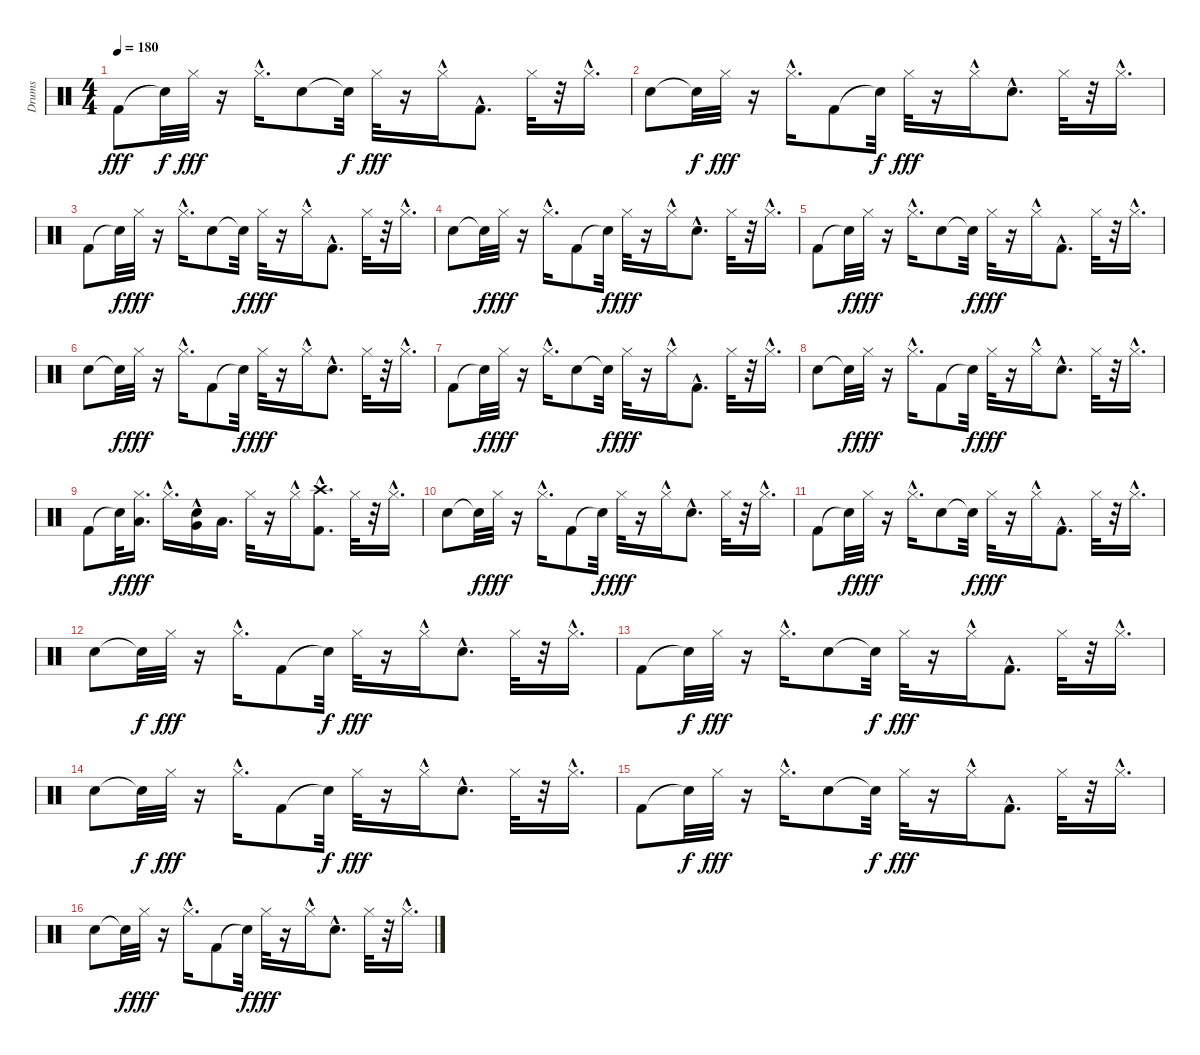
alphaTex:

\track ("Drums" "Drums") {instrument percussion}
\staff {score}
\articulation defaults
\ts (4 4)
\tempo 180
\clef neutral
\ks c "Kick (hit) 2".8{dy fff} "Snare (hit)"{t}.32{dy f} "Hi-Hat (closed)".32{dy fff}
r.16 "Hi-Hat (closed)"{hac}.16{d} "Snare (hit) 2".8 "Snare (hit)"{t}.32{dy f} "Hi-Hat (closed)".32{dy fff} r.16 "Hi-Hat (closed)"{hac}.16 "Kick (hit) 2"{hac}.8{d} "Hi-Hat (closed)".32 r.32 "Hi-Hat (closed)"{hac}.16{d} |
"Snare (hit) 2".8 "Snare (hit)"{t}.32{dy f} "Hi-Hat (closed)".32{dy fff} r.16 "Hi-Hat (closed)"{hac}.16{d} "Kick (hit) 2".8 "Snare (hit)"{t}.32{dy f} "Hi-Hat (closed)".32{dy fff} r.16 "Hi-Hat (closed)"{hac}.16 "Snare (hit) 2"{hac}.8{d} "Hi-Hat (closed)".32 r.32 "Hi-Hat (closed)"{hac}.16{d} |
"Kick (hit) 2".8 "Snare (hit)"{t}.32{dy f} "Hi-Hat (closed)".32{dy fff} r.16 "Hi-Hat (closed)"{hac}.16{d} "Snare (hit) 2".8 "Snare (hit)"{t}.32{dy f} "Hi-Hat (closed)".32{dy fff} r.16 "Hi-Hat (closed)"{hac}.16 "Kick (hit) 2"{hac}.8{d} "Hi-Hat (closed)".32 r.32 "Hi-Hat (closed)"{hac}.16{d} |
"Snare (hit) 2".8 "Snare (hit)"{t}.32{dy f} "Hi-Hat (closed)".32{dy fff} r.16 "Hi-Hat (closed)"{hac}.16{d} "Kick (hit) 2".8 "Snare (hit)"{t}.32{dy f} "Hi-Hat (closed)".32{dy fff} r.16 "Hi-Hat (closed)"{hac}.16 "Snare (hit) 2"{hac}.8{d} "Hi-Hat (closed)".32 r.32 "Hi-Hat (closed)"{hac}.16{d} |
"Kick (hit) 2".8 "Snare (hit)"{t}.32{dy f} "Hi-Hat (closed)".32{dy fff} r.16 "Hi-Hat (closed)"{hac}.16{d} "Snare (hit) 2".8 "Snare (hit)"{t}.32{dy f} "Hi-Hat (closed)".32{dy fff} r.16 "Hi-Hat (closed)"{hac}.16 "Kick (hit) 2"{hac}.8{d} "Hi-Hat (closed)".32 r.32 "Hi-Hat (closed)"{hac}.16{d} |
"Snare (hit) 2".8 "Snare (hit)"{t}.32{dy f} "Hi-Hat (closed)".32{dy fff} r.16 "Hi-Hat (closed)"{hac}.16{d} "Kick (hit) 2".8 "Snare (hit)"{t}.32{dy f} "Hi-Hat (closed)".32{dy fff} r.16 "Hi-Hat (closed)"{hac}.16 "Snare (hit) 2"{hac}.8{d} "Hi-Hat (closed)".32 r.32 "Hi-Hat (closed)"{hac}.16{d} |
"Kick (hit) 2".8 "Snare (hit)"{t}.32{dy f} "Hi-Hat (closed)".32{dy fff} r.16 "Hi-Hat (closed)"{hac}.16{d} "Snare (hit) 2".8 "Snare (hit)"{t}.32{dy f} "Hi-Hat (closed)".32{dy fff} r.16 "Hi-Hat (closed)"{hac}.16 "Kick (hit) 2"{hac}.8{d} "Hi-Hat (closed)".32 r.32 "Hi-Hat (closed)"{hac}.16{d} |
"Snare (hit) 2".8 "Snare (hit)"{t}.32{dy f} "Hi-Hat (closed)".32{dy fff} r.16 "Hi-Hat (closed)"{hac}.16{d} "Kick (hit) 2".8 "Snare (hit)"{t}.32{dy f} "Hi-Hat (closed)".32{dy fff} r.16 "Hi-Hat (closed)"{hac}.16 "Snare (hit) 2"{hac}.8{d} "Hi-Hat (closed)".32 r.32 "Hi-Hat (closed)"{hac}.16{d} |
"Kick (hit) 2".8 "Snare (hit)"{t}.32{dy f} ("Hi-Hat (closed)" "Low Tom (hit)").16{d dy fff} "Hi-Hat (closed)"{hac}.16{d} ("Snare (hit) 2"{hac} "Very Low Tom (hit)").16 "Low Floor Tom (hit)".16{d} "Hi-Hat (closed)".32 r.16 "Hi-Hat (closed)"{hac}.16 ("Kick (hit) 2"{hac} "Crash high (hit)").8{d} "Hi-Hat (closed)".32 r.32 "Hi-Hat (closed)"{hac}.16{d} |
"Snare (hit) 2".8 "Snare (hit)"{t}.32{dy f} "Hi-Hat (closed)".32{dy fff} r.16 "Hi-Hat (closed)"{hac}.16{d} "Kick (hit) 2".8 "Snare (hit)"{t}.32{dy f} "Hi-Hat (closed)".32{dy fff} r.16 "Hi-Hat (closed)"{hac}.16 "Snare (hit) 2"{hac}.8{d} "Hi-Hat (closed)".32 r.32 "Hi-Hat (closed)"{hac}.16{d} |
"Kick (hit) 2".8 "Snare (hit)"{t}.32{dy f} "Hi-Hat (closed)".32{dy fff} r.16 "Hi-Hat (closed)"{hac}.16{d} "Snare (hit) 2".8 "Snare (hit)"{t}.32{dy f} "Hi-Hat (closed)".32{dy fff} r.16 "Hi-Hat (closed)"{hac}.16 "Kick (hit) 2"{hac}.8{d} "Hi-Hat (closed)".32 r.32 "Hi-Hat (closed)"{hac}.16{d} |
"Snare (hit) 2".8 "Snare (hit)"{t}.32{dy f} "Hi-Hat (closed)".32{dy fff} r.16 "Hi-Hat (closed)"{hac}.16{d} "Kick (hit) 2".8 "Snare (hit)"{t}.32{dy f} "Hi-Hat (closed)".32{dy fff} r.16 "Hi-Hat (closed)"{hac}.16 "Snare (hit) 2"{hac}.8{d} "Hi-Hat (closed)".32 r.32 "Hi-Hat (closed)"{hac}.16{d} |
"Kick (hit) 2".8 "Snare (hit)"{t}.32{dy f} "Hi-Hat (closed)".32{dy fff} r.16 "Hi-Hat (closed)"{hac}.16{d} "Snare (hit) 2".8 "Snare (hit)"{t}.32{dy f} "Hi-Hat (closed)".32{dy fff} r.16 "Hi-Hat (closed)"{hac}.16 "Kick (hit) 2"{hac}.8{d} "Hi-Hat (closed)".32 r.32 "Hi-Hat (closed)"{hac}.16{d} |
"Snare (hit) 2".8 "Snare (hit)"{t}.32{dy f} "Hi-Hat (closed)".32{dy fff} r.16 "Hi-Hat (closed)"{hac}.16{d} "Kick (hit) 2".8 "Snare (hit)"{t}.32{dy f} "Hi-Hat (closed)".32{dy fff} r.16 "Hi-Hat (closed)"{hac}.16 "Snare (hit) 2"{hac}.8{d} "Hi-Hat (closed)".32 r.32 "Hi-Hat (closed)"{hac}.16{d} |
"Kick (hit) 2".8 "Snare (hit)"{t}.32{dy f} "Hi-Hat (closed)".32{dy fff} r.16 "Hi-Hat (closed)"{hac}.16{d} "Snare (hit) 2".8 "Snare (hit)"{t}.32{dy f} "Hi-Hat (closed)".32{dy fff} r.16 "Hi-Hat (closed)"{hac}.16 "Kick (hit) 2"{hac}.8{d} "Hi-Hat (closed)".32 r.32 "Hi-Hat (closed)"{hac}.16{d} |
"Snare (hit) 2".8 "Snare (hit)"{t}.32{dy f} "Hi-Hat (closed)".32{dy fff} r.16 "Hi-Hat (closed)"{hac}.16{d} "Kick (hit) 2".8 "Snare (hit)"{t}.32{dy f} "Hi-Hat (closed)".32{dy fff} r.16 "Hi-Hat (closed)"{hac}.16 "Snare (hit) 2"{hac}.8{d} "Hi-Hat (closed)".32 r.32 "Hi-Hat (closed)"{hac}.16{d}
